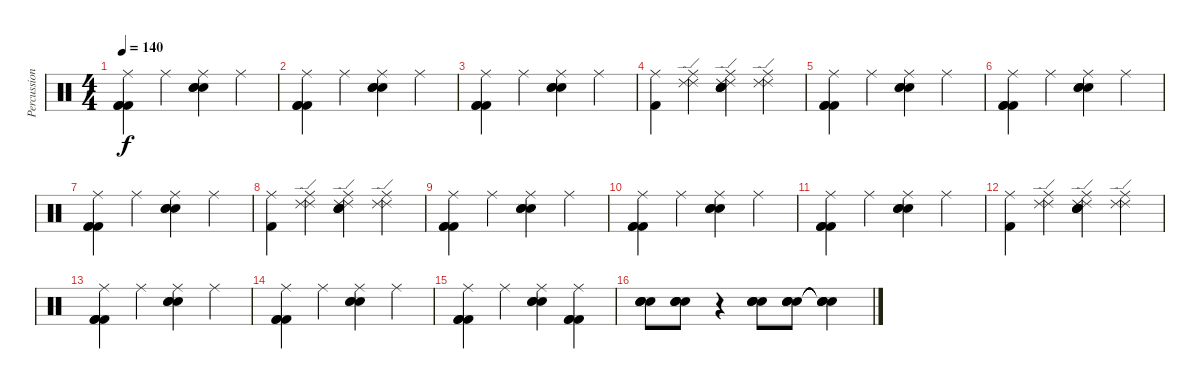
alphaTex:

\track ("Percussion" "Percussion") {instrument percussion}
\staff {score}
\articulation defaults
\ts (4 4)
\tempo 140
\clef neutral
\ks c
("Ride (middle)" "Kick (hit) 2" "Kick (hit) 2" "Kick (hit) 2").4{dy f} "Ride (middle)".4 ("Ride (middle)" "Electric Snare (hit)" "Electric Snare (hit)" "Electric Snare (hit)").4 "Ride (middle)".4 |
("Ride (middle)" "Kick (hit) 2" "Kick (hit) 2" "Kick (hit) 2").4 "Ride (middle)".4 ("Ride (middle)" "Electric Snare (hit)" "Electric Snare (hit)" "Electric Snare (hit)").4 "Ride (middle)".4 |
("Ride (middle)" "Kick (hit) 2" "Kick (hit) 2" "Kick (hit) 2").4 "Ride (middle)".4 ("Ride (middle)" "Electric Snare (hit)" "Electric Snare (hit)" "Electric Snare (hit)").4 "Ride (middle)".4 |
("Ride (middle)" "Kick (hit) 2").4 ("Ride (middle)" "Ride (edge) 2" "Ride (edge) 2").4 ("Ride (middle)" "Electric Snare (hit)" "Electric Snare (hit)" "Electric Snare (hit)" "Ride (edge) 2" "Ride (edge) 2").4 ("Ride (middle)" "Ride (edge) 2" "Ride (edge) 2").4 |
("Ride (middle)" "Kick (hit) 2" "Kick (hit) 2" "Kick (hit) 2").4 "Ride (middle)".4 ("Ride (middle)" "Electric Snare (hit)" "Electric Snare (hit)" "Electric Snare (hit)").4 "Ride (middle)".4 |
("Ride (middle)" "Kick (hit) 2" "Kick (hit) 2" "Kick (hit) 2").4 "Ride (middle)".4 ("Ride (middle)" "Electric Snare (hit)" "Electric Snare (hit)" "Electric Snare (hit)").4 "Ride (middle)".4 |
("Ride (middle)" "Kick (hit) 2" "Kick (hit) 2" "Kick (hit) 2").4 "Ride (middle)".4 ("Ride (middle)" "Electric Snare (hit)" "Electric Snare (hit)" "Electric Snare (hit)").4 "Ride (middle)".4 |
("Ride (middle)" "Kick (hit) 2").4 ("Ride (middle)" "Ride (edge) 2" "Ride (edge) 2").4 ("Ride (middle)" "Electric Snare (hit)" "Electric Snare (hit)" "Electric Snare (hit)" "Ride (edge) 2" "Ride (edge) 2").4 ("Ride (middle)" "Ride (edge) 2" "Ride (edge) 2").4 |
("Ride (middle)" "Kick (hit) 2" "Kick (hit) 2" "Kick (hit) 2").4 "Ride (middle)".4 ("Ride (middle)" "Electric Snare (hit)" "Electric Snare (hit)" "Electric Snare (hit)").4 "Ride (middle)".4 |
("Ride (middle)" "Kick (hit) 2" "Kick (hit) 2" "Kick (hit) 2").4 "Ride (middle)".4 ("Ride (middle)" "Electric Snare (hit)" "Electric Snare (hit)" "Electric Snare (hit)").4 "Ride (middle)".4 |
("Ride (middle)" "Kick (hit) 2" "Kick (hit) 2" "Kick (hit) 2").4 "Ride (middle)".4 ("Ride (middle)" "Electric Snare (hit)" "Electric Snare (hit)" "Electric Snare (hit)").4 "Ride (middle)".4 |
("Ride (middle)" "Kick (hit) 2").4 ("Ride (middle)" "Ride (edge) 2" "Ride (edge) 2").4 ("Ride (middle)" "Electric Snare (hit)" "Electric Snare (hit)" "Electric Snare (hit)" "Ride (edge) 2" "Ride (edge) 2").4 ("Ride (middle)" "Ride (edge) 2" "Ride (edge) 2").4 |
("Ride (middle)" "Kick (hit) 2" "Kick (hit) 2" "Kick (hit) 2").4 "Ride (middle)".4 ("Ride (middle)" "Electric Snare (hit)" "Electric Snare (hit)" "Electric Snare (hit)").4 "Ride (middle)".4 |
("Ride (middle)" "Kick (hit) 2" "Kick (hit) 2" "Kick (hit) 2").4 "Ride (middle)".4 ("Ride (middle)" "Electric Snare (hit)" "Electric Snare (hit)" "Electric Snare (hit)").4 "Ride (middle)".4 |
("Ride (middle)" "Kick (hit) 2" "Kick (hit) 2" "Kick (hit) 2").4 "Ride (middle)".4 ("Ride (middle)" "Electric Snare (hit)" "Electric Snare (hit)" "Electric Snare (hit)").4 ("Ride (middle)" "Kick (hit) 2" "Kick (hit) 2" "Kick (hit) 2").4 |
("Electric Snare (hit)" "Electric Snare (hit)" "Electric Snare (hit)" "Electric Snare (hit)").8 ("Electric Snare (hit)" "Electric Snare (hit)" "Electric Snare (hit)" "Electric Snare (hit)").8 r.4 ("Electric Snare (hit)" "Electric Snare (hit)" "Electric Snare (hit)" "Electric Snare (hit)").8 ("Electric Snare (hit)" "Electric Snare (hit)" "Electric Snare (hit)" "Electric Snare (hit)").8 ("Snare (hit)"{t} "Snare (hit)"{t} "Snare (hit)"{t} "Snare (hit)"{t}).4
